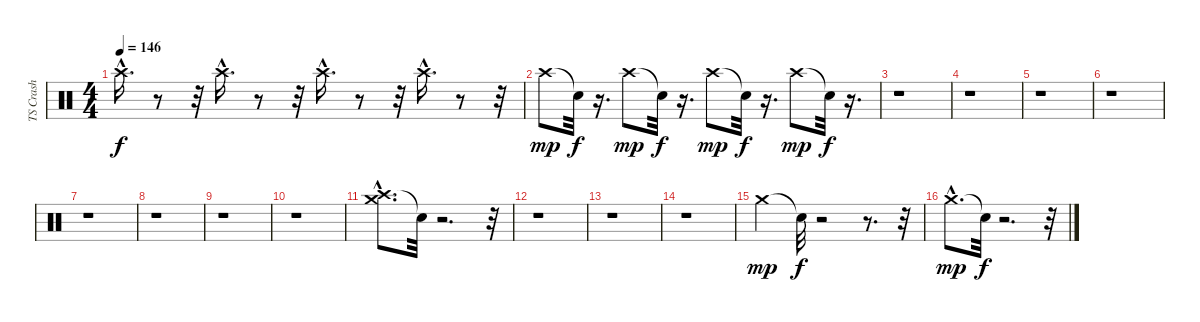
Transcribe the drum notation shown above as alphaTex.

\track ("TS Crash" "TS Crash") {instrument percussion}
\staff {score}
\articulation defaults
\ts (4 4)
\tempo 146
\clef neutral
\ks c "Crash high (hit)"{hac}.16{d dy f}
r.8 r.32 "Crash high (hit)"{hac}.16{d} r.8 r.32 "Crash high (hit)"{hac}.16{d} r.8 r.32 "Crash high (hit)"{hac}.16{d} r.8 r.32 |
"Crash high (hit)".8{dy mp} "Snare (hit)"{t}.32{dy f} r.16{d} "Crash high (hit)".8{dy mp} "Snare (hit)"{t}.32{dy f} r.16{d} "Crash high (hit)".8{dy mp} "Snare (hit)"{t}.32{dy f} r.16{d} "Crash high (hit)".8{dy mp} "Snare (hit)"{t}.32{dy f} r.16{d} |
r.1 |
r.1 |
r.1 |
r.1 |
r.1 |
r.1 |
r.1 |
r.1 |
("Crash high (hit)"{hac} "Crash medium (hit)"{hac}).8{d} "Snare (hit)"{t}.32 r.2{d} r.32 |
r.1 |
r.1 |
r.1 |
"Crash medium (hit)".4{dy mp} "Snare (hit)"{t}.32{dy f} r.2 r.8{d} r.32 |
"Crash medium (hit)"{hac}.8{d dy mp} "Snare (hit)"{t}.32{dy f} r.2{d} r.32
